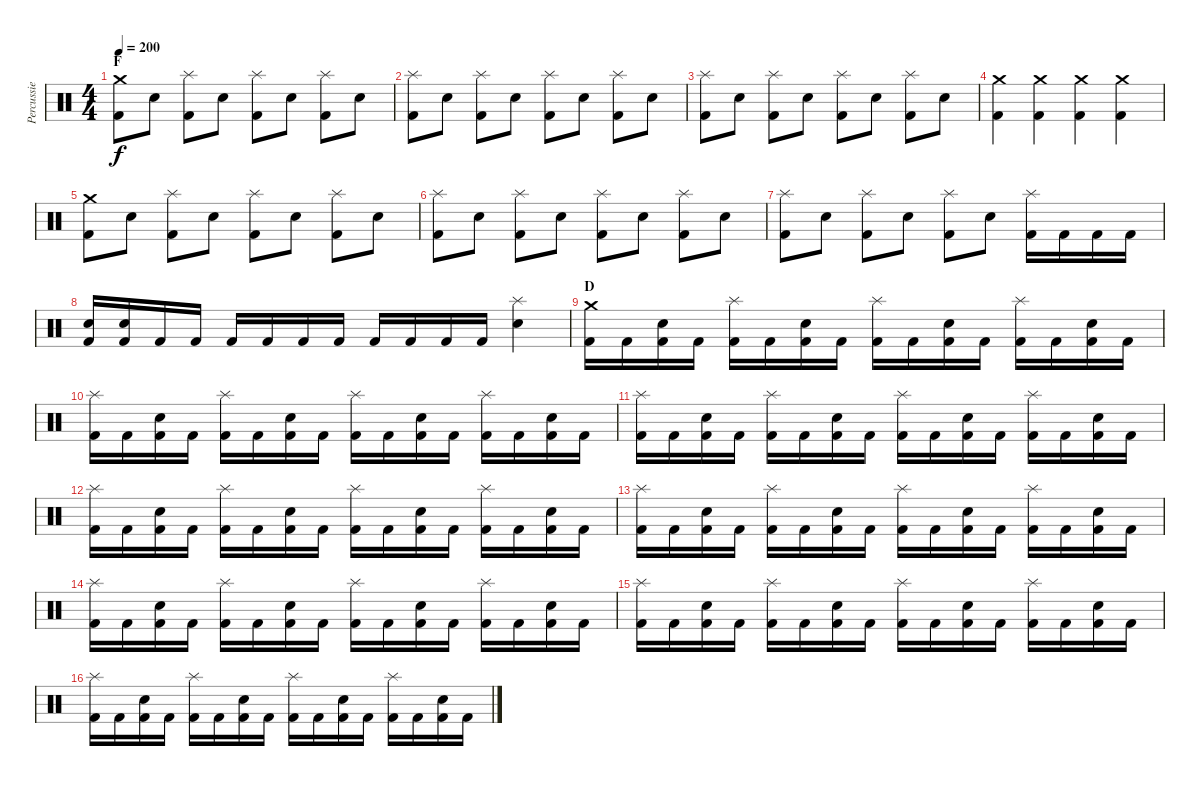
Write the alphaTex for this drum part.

\track ("Percussie" "Percussie") {instrument percussion}
\staff {score}
\articulation defaults
\ts (4 4)
\section ("" "F")
\tempo 200
\clef neutral
\ks c
("Crash medium (hit)" "Kick (hit) 2").8{dy f} "Electric Snare (hit)".8 ("Splash (hit)" "Kick (hit) 2").8 "Electric Snare (hit)".8 ("Splash (hit)" "Kick (hit) 2").8 "Electric Snare (hit)".8 ("Splash (hit)" "Kick (hit) 2").8 "Electric Snare (hit)".8 |
("Splash (hit)" "Kick (hit) 2").8 "Electric Snare (hit)".8 ("Splash (hit)" "Kick (hit) 2").8 "Electric Snare (hit)".8 ("Splash (hit)" "Kick (hit) 2").8 "Electric Snare (hit)".8 ("Splash (hit)" "Kick (hit) 2").8 "Electric Snare (hit)".8 |
("Splash (hit)" "Kick (hit) 2").8 "Electric Snare (hit)".8 ("Splash (hit)" "Kick (hit) 2").8 "Electric Snare (hit)".8 ("Splash (hit)" "Kick (hit) 2").8 "Electric Snare (hit)".8 ("Splash (hit)" "Kick (hit) 2").8 "Electric Snare (hit)".8 |
("Crash medium (hit)" "Kick (hit) 2").4 ("Crash medium (hit)" "Kick (hit) 2").4 ("Crash medium (hit)" "Kick (hit) 2").4 ("Crash medium (hit)" "Kick (hit) 2").4 |
("Crash medium (hit)" "Kick (hit) 2").8 "Electric Snare (hit)".8 ("Splash (hit)" "Kick (hit) 2").8 "Electric Snare (hit)".8 ("Splash (hit)" "Kick (hit) 2").8 "Electric Snare (hit)".8 ("Splash (hit)" "Kick (hit) 2").8 "Electric Snare (hit)".8 |
("Splash (hit)" "Kick (hit) 2").8 "Electric Snare (hit)".8 ("Splash (hit)" "Kick (hit) 2").8 "Electric Snare (hit)".8 ("Splash (hit)" "Kick (hit) 2").8 "Electric Snare (hit)".8 ("Splash (hit)" "Kick (hit) 2").8 "Electric Snare (hit)".8 |
("Splash (hit)" "Kick (hit) 2").8 "Electric Snare (hit)".8 ("Splash (hit)" "Kick (hit) 2").8 "Electric Snare (hit)".8 ("Splash (hit)" "Kick (hit) 2").8 "Electric Snare (hit)".8 ("Splash (hit)" "Kick (hit) 2").16 "Kick (hit) 2".16 "Kick (hit) 2".16 "Kick (hit) 2".16 |
("Electric Snare (hit)" "Kick (hit) 2").16 ("Electric Snare (hit)" "Kick (hit) 2").16 "Kick (hit) 2".16 "Kick (hit) 2".16 "Kick (hit) 2".16 "Kick (hit) 2".16 "Kick (hit) 2".16 "Kick (hit) 2".16 "Kick (hit) 2".16 "Kick (hit) 2".16 "Kick (hit) 2".16 "Kick (hit) 2".16 ("Splash (hit)" "Electric Snare (hit)").4 |
\section ("" "D")
("Crash medium (hit)" "Kick (hit) 2").16 "Kick (hit) 2".16 ("Electric Snare (hit)" "Kick (hit) 2").16 "Kick (hit) 2".16 ("Splash (hit)" "Kick (hit) 2").16 "Kick (hit) 2".16 ("Electric Snare (hit)" "Kick (hit) 2").16 "Kick (hit) 2".16 ("Splash (hit)" "Kick (hit) 2").16 "Kick (hit) 2".16 ("Electric Snare (hit)" "Kick (hit) 2").16 "Kick (hit) 2".16 ("Splash (hit)" "Kick (hit) 2").16 "Kick (hit) 2".16 ("Electric Snare (hit)" "Kick (hit) 2").16 "Kick (hit) 2".16 |
("Splash (hit)" "Kick (hit) 2").16 "Kick (hit) 2".16 ("Electric Snare (hit)" "Kick (hit) 2").16 "Kick (hit) 2".16 ("Splash (hit)" "Kick (hit) 2").16 "Kick (hit) 2".16 ("Electric Snare (hit)" "Kick (hit) 2").16 "Kick (hit) 2".16 ("Splash (hit)" "Kick (hit) 2").16 "Kick (hit) 2".16 ("Electric Snare (hit)" "Kick (hit) 2").16 "Kick (hit) 2".16 ("Splash (hit)" "Kick (hit) 2").16 "Kick (hit) 2".16 ("Electric Snare (hit)" "Kick (hit) 2").16 "Kick (hit) 2".16 |
("Splash (hit)" "Kick (hit) 2").16 "Kick (hit) 2".16 ("Electric Snare (hit)" "Kick (hit) 2").16 "Kick (hit) 2".16 ("Splash (hit)" "Kick (hit) 2").16 "Kick (hit) 2".16 ("Electric Snare (hit)" "Kick (hit) 2").16 "Kick (hit) 2".16 ("Splash (hit)" "Kick (hit) 2").16 "Kick (hit) 2".16 ("Electric Snare (hit)" "Kick (hit) 2").16 "Kick (hit) 2".16 ("Splash (hit)" "Kick (hit) 2").16 "Kick (hit) 2".16 ("Electric Snare (hit)" "Kick (hit) 2").16 "Kick (hit) 2".16 |
("Splash (hit)" "Kick (hit) 2").16 "Kick (hit) 2".16 ("Electric Snare (hit)" "Kick (hit) 2").16 "Kick (hit) 2".16 ("Splash (hit)" "Kick (hit) 2").16 "Kick (hit) 2".16 ("Electric Snare (hit)" "Kick (hit) 2").16 "Kick (hit) 2".16 ("Splash (hit)" "Kick (hit) 2").16 "Kick (hit) 2".16 ("Electric Snare (hit)" "Kick (hit) 2").16 "Kick (hit) 2".16 ("Splash (hit)" "Kick (hit) 2").16 "Kick (hit) 2".16 ("Electric Snare (hit)" "Kick (hit) 2").16 "Kick (hit) 2".16 |
("Splash (hit)" "Kick (hit) 2").16 "Kick (hit) 2".16 ("Electric Snare (hit)" "Kick (hit) 2").16 "Kick (hit) 2".16 ("Splash (hit)" "Kick (hit) 2").16 "Kick (hit) 2".16 ("Electric Snare (hit)" "Kick (hit) 2").16 "Kick (hit) 2".16 ("Splash (hit)" "Kick (hit) 2").16 "Kick (hit) 2".16 ("Electric Snare (hit)" "Kick (hit) 2").16 "Kick (hit) 2".16 ("Splash (hit)" "Kick (hit) 2").16 "Kick (hit) 2".16 ("Electric Snare (hit)" "Kick (hit) 2").16 "Kick (hit) 2".16 |
("Splash (hit)" "Kick (hit) 2").16 "Kick (hit) 2".16 ("Electric Snare (hit)" "Kick (hit) 2").16 "Kick (hit) 2".16 ("Splash (hit)" "Kick (hit) 2").16 "Kick (hit) 2".16 ("Electric Snare (hit)" "Kick (hit) 2").16 "Kick (hit) 2".16 ("Splash (hit)" "Kick (hit) 2").16 "Kick (hit) 2".16 ("Electric Snare (hit)" "Kick (hit) 2").16 "Kick (hit) 2".16 ("Splash (hit)" "Kick (hit) 2").16 "Kick (hit) 2".16 ("Electric Snare (hit)" "Kick (hit) 2").16 "Kick (hit) 2".16 |
("Splash (hit)" "Kick (hit) 2").16 "Kick (hit) 2".16 ("Electric Snare (hit)" "Kick (hit) 2").16 "Kick (hit) 2".16 ("Splash (hit)" "Kick (hit) 2").16 "Kick (hit) 2".16 ("Electric Snare (hit)" "Kick (hit) 2").16 "Kick (hit) 2".16 ("Splash (hit)" "Kick (hit) 2").16 "Kick (hit) 2".16 ("Electric Snare (hit)" "Kick (hit) 2").16 "Kick (hit) 2".16 ("Splash (hit)" "Kick (hit) 2").16 "Kick (hit) 2".16 ("Electric Snare (hit)" "Kick (hit) 2").16 "Kick (hit) 2".16 |
("Splash (hit)" "Kick (hit) 2").16 "Kick (hit) 2".16 ("Electric Snare (hit)" "Kick (hit) 2").16 "Kick (hit) 2".16 ("Splash (hit)" "Kick (hit) 2").16 "Kick (hit) 2".16 ("Electric Snare (hit)" "Kick (hit) 2").16 "Kick (hit) 2".16 ("Splash (hit)" "Kick (hit) 2").16 "Kick (hit) 2".16 ("Electric Snare (hit)" "Kick (hit) 2").16 "Kick (hit) 2".16 ("Splash (hit)" "Kick (hit) 2").16 "Kick (hit) 2".16 ("Electric Snare (hit)" "Kick (hit) 2").16 "Kick (hit) 2".16
